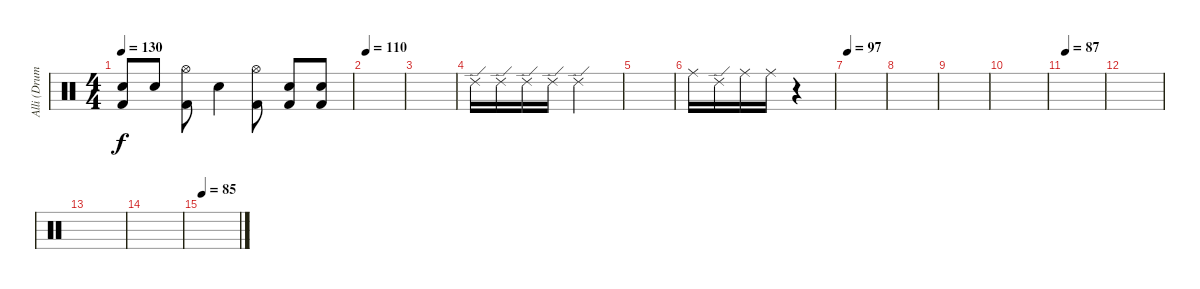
\track ("Alli (Drums)" "Alli (Drum") {instrument percussion}
\staff {score}
\articulation defaults
\ts (4 4)
\tempo 130
\clef neutral
\ks c
("Snare (hit) 2" "Kick (hit) 2").8{dy f} "Snare (hit) 2".8 ("Hi-Hat (open)" "Kick (hit) 2").8 "Snare (hit) 2".4 ("Hi-Hat (open)" "Kick (hit) 2").8 ("Snare (hit) 2" "Kick (hit) 2").8 ("Snare (hit) 2" "Kick (hit) 2").8 |
\tempo 110
|
|
"Ride (edge) 2".16 "Ride (edge) 2".16 "Ride (edge) 2".16 "Ride (edge) 2".16 "Ride (edge) 2".2 |
|
"Ride (middle)".16 "Ride (edge) 2".16 "Ride (middle)".16 "Ride (middle)".16 r.4 |
\tempo 97
|
|
|
|
\tempo 87
|
|
|
|
\tempo 85
